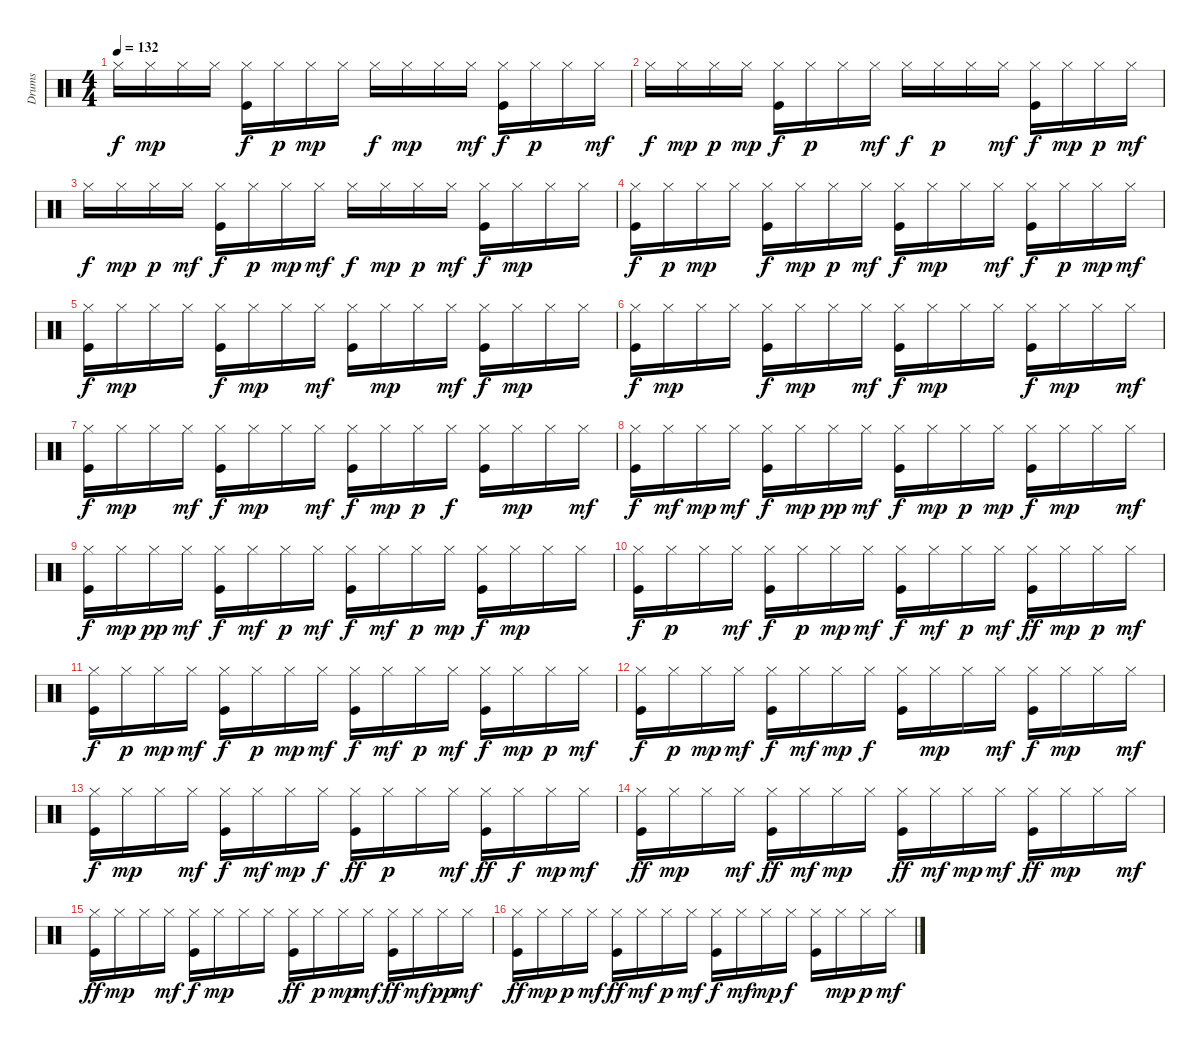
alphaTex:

\track ("Drums" "Drums") {instrument percussion}
\staff {score}
\articulation defaults
\ts (4 4)
\tempo 132
\clef neutral
\ks c "Hi-Hat (closed)".16{dy f} "Hi-Hat (closed)".16{dy mp} "Hi-Hat (closed)".16 "Hi-Hat (closed)".16
("Hi-Hat (closed)" "Kick (hit)").16{dy f} "Hi-Hat (closed)".16{dy p} "Hi-Hat (closed)".16{dy mp} "Hi-Hat (closed)".16 "Hi-Hat (closed)".16{dy f} "Hi-Hat (closed)".16{dy mp} "Hi-Hat (closed)".16 "Hi-Hat (closed)".16{dy mf} ("Hi-Hat (closed)" "Kick (hit)").16{dy f} "Hi-Hat (closed)".16{dy p} "Hi-Hat (closed)".16 "Hi-Hat (closed)".16{dy mf} |
"Hi-Hat (closed)".16{dy f} "Hi-Hat (closed)".16{dy mp} "Hi-Hat (closed)".16{dy p} "Hi-Hat (closed)".16{dy mp} ("Hi-Hat (closed)" "Kick (hit)").16{dy f} "Hi-Hat (closed)".16{dy p} "Hi-Hat (closed)".16 "Hi-Hat (closed)".16{dy mf} "Hi-Hat (closed)".16{dy f} "Hi-Hat (closed)".16{dy p} "Hi-Hat (closed)".16 "Hi-Hat (closed)".16{dy mf} ("Hi-Hat (closed)" "Kick (hit)").16{dy f} "Hi-Hat (closed)".16{dy mp} "Hi-Hat (closed)".16{dy p} "Hi-Hat (closed)".16{dy mf} |
"Hi-Hat (closed)".16{dy f} "Hi-Hat (closed)".16{dy mp} "Hi-Hat (closed)".16{dy p} "Hi-Hat (closed)".16{dy mf} ("Hi-Hat (closed)" "Kick (hit)").16{dy f} "Hi-Hat (closed)".16{dy p} "Hi-Hat (closed)".16{dy mp} "Hi-Hat (closed)".16{dy mf} "Hi-Hat (closed)".16{dy f} "Hi-Hat (closed)".16{dy mp} "Hi-Hat (closed)".16{dy p} "Hi-Hat (closed)".16{dy mf} ("Hi-Hat (closed)" "Kick (hit)").16{dy f} "Hi-Hat (closed)".16{dy mp} "Hi-Hat (closed)".16 "Hi-Hat (closed)".16 |
("Hi-Hat (closed)" "Kick (hit)").16{dy f} "Hi-Hat (closed)".16{dy p} "Hi-Hat (closed)".16{dy mp} "Hi-Hat (closed)".16 ("Hi-Hat (closed)" "Kick (hit)").16{dy f} "Hi-Hat (closed)".16{dy mp} "Hi-Hat (closed)".16{dy p} "Hi-Hat (closed)".16{dy mf} ("Hi-Hat (closed)" "Kick (hit)").16{dy f} "Hi-Hat (closed)".16{dy mp} "Hi-Hat (closed)".16 "Hi-Hat (closed)".16{dy mf} ("Hi-Hat (closed)" "Kick (hit)").16{dy f} "Hi-Hat (closed)".16{dy p} "Hi-Hat (closed)".16{dy mp} "Hi-Hat (closed)".16{dy mf} |
("Hi-Hat (closed)" "Kick (hit)").16{dy f} "Hi-Hat (closed)".16{dy mp} "Hi-Hat (closed)".16 "Hi-Hat (closed)".16 ("Hi-Hat (closed)" "Kick (hit)").16{dy f} "Hi-Hat (closed)".16{dy mp} "Hi-Hat (closed)".16 "Hi-Hat (closed)".16{dy mf} ("Hi-Hat (closed)" "Kick (hit)").16 "Hi-Hat (closed)".16{dy mp} "Hi-Hat (closed)".16 "Hi-Hat (closed)".16{dy mf} ("Hi-Hat (closed)" "Kick (hit)").16{dy f} "Hi-Hat (closed)".16{dy mp} "Hi-Hat (closed)".16 "Hi-Hat (closed)".16 |
("Hi-Hat (closed)" "Kick (hit)").16{dy f} "Hi-Hat (closed)".16{dy mp} "Hi-Hat (closed)".16 "Hi-Hat (closed)".16 ("Hi-Hat (closed)" "Kick (hit)").16{dy f} "Hi-Hat (closed)".16{dy mp} "Hi-Hat (closed)".16 "Hi-Hat (closed)".16{dy mf} ("Hi-Hat (closed)" "Kick (hit)").16{dy f} "Hi-Hat (closed)".16{dy mp} "Hi-Hat (closed)".16 "Hi-Hat (closed)".16 ("Hi-Hat (closed)" "Kick (hit)").16{dy f} "Hi-Hat (closed)".16{dy mp} "Hi-Hat (closed)".16 "Hi-Hat (closed)".16{dy mf} |
("Hi-Hat (closed)" "Kick (hit)").16{dy f} "Hi-Hat (closed)".16{dy mp} "Hi-Hat (closed)".16 "Hi-Hat (closed)".16{dy mf} ("Hi-Hat (closed)" "Kick (hit)").16{dy f} "Hi-Hat (closed)".16{dy mp} "Hi-Hat (closed)".16 "Hi-Hat (closed)".16{dy mf} ("Hi-Hat (closed)" "Kick (hit)").16{dy f} "Hi-Hat (closed)".16{dy mp} "Hi-Hat (closed)".16{dy p} "Hi-Hat (closed)".16{dy f} ("Hi-Hat (closed)" "Kick (hit)").16 "Hi-Hat (closed)".16{dy mp} "Hi-Hat (closed)".16 "Hi-Hat (closed)".16{dy mf} |
("Hi-Hat (closed)" "Kick (hit)").16{dy f} "Hi-Hat (closed)".16{dy mf} "Hi-Hat (closed)".16{dy mp} "Hi-Hat (closed)".16{dy mf} ("Hi-Hat (closed)" "Kick (hit)").16{dy f} "Hi-Hat (closed)".16{dy mp} "Hi-Hat (closed)".16{dy pp} "Hi-Hat (closed)".16{dy mf} ("Hi-Hat (closed)" "Kick (hit)").16{dy f} "Hi-Hat (closed)".16{dy mp} "Hi-Hat (closed)".16{dy p} "Hi-Hat (closed)".16{dy mp} ("Hi-Hat (closed)" "Kick (hit)").16{dy f} "Hi-Hat (closed)".16{dy mp} "Hi-Hat (closed)".16 "Hi-Hat (closed)".16{dy mf} |
("Hi-Hat (closed)" "Kick (hit)").16{dy f} "Hi-Hat (closed)".16{dy mp} "Hi-Hat (closed)".16{dy pp} "Hi-Hat (closed)".16{dy mf} ("Hi-Hat (closed)" "Kick (hit)").16{dy f} "Hi-Hat (closed)".16{dy mf} "Hi-Hat (closed)".16{dy p} "Hi-Hat (closed)".16{dy mf} ("Hi-Hat (closed)" "Kick (hit)").16{dy f} "Hi-Hat (closed)".16{dy mf} "Hi-Hat (closed)".16{dy p} "Hi-Hat (closed)".16{dy mp} ("Hi-Hat (closed)" "Kick (hit)").16{dy f} "Hi-Hat (closed)".16{dy mp} "Hi-Hat (closed)".16 "Hi-Hat (closed)".16 |
("Hi-Hat (closed)" "Kick (hit)").16{dy f} "Hi-Hat (closed)".16{dy p} "Hi-Hat (closed)".16 "Hi-Hat (closed)".16{dy mf} ("Hi-Hat (closed)" "Kick (hit)").16{dy f} "Hi-Hat (closed)".16{dy p} "Hi-Hat (closed)".16{dy mp} "Hi-Hat (closed)".16{dy mf} ("Hi-Hat (closed)" "Kick (hit)").16{dy f} "Hi-Hat (closed)".16{dy mf} "Hi-Hat (closed)".16{dy p} "Hi-Hat (closed)".16{dy mf} ("Hi-Hat (closed)" "Kick (hit)").16{dy ff} "Hi-Hat (closed)".16{dy mp} "Hi-Hat (closed)".16{dy p} "Hi-Hat (closed)".16{dy mf} |
("Hi-Hat (closed)" "Kick (hit)").16{dy f} "Hi-Hat (closed)".16{dy p} "Hi-Hat (closed)".16{dy mp} "Hi-Hat (closed)".16{dy mf} ("Hi-Hat (closed)" "Kick (hit)").16{dy f} "Hi-Hat (closed)".16{dy p} "Hi-Hat (closed)".16{dy mp} "Hi-Hat (closed)".16{dy mf} ("Hi-Hat (closed)" "Kick (hit)").16{dy f} "Hi-Hat (closed)".16{dy mf} "Hi-Hat (closed)".16{dy p} "Hi-Hat (closed)".16{dy mf} ("Hi-Hat (closed)" "Kick (hit)").16{dy f} "Hi-Hat (closed)".16{dy mp} "Hi-Hat (closed)".16{dy p} "Hi-Hat (closed)".16{dy mf} |
("Hi-Hat (closed)" "Kick (hit)").16{dy f} "Hi-Hat (closed)".16{dy p} "Hi-Hat (closed)".16{dy mp} "Hi-Hat (closed)".16{dy mf} ("Hi-Hat (closed)" "Kick (hit)").16{dy f} "Hi-Hat (closed)".16{dy mf} "Hi-Hat (closed)".16{dy mp} "Hi-Hat (closed)".16{dy f} ("Hi-Hat (closed)" "Kick (hit)").16 "Hi-Hat (closed)".16{dy mp} "Hi-Hat (closed)".16 "Hi-Hat (closed)".16{dy mf} ("Hi-Hat (closed)" "Kick (hit)").16{dy f} "Hi-Hat (closed)".16{dy mp} "Hi-Hat (closed)".16 "Hi-Hat (closed)".16{dy mf} |
("Hi-Hat (closed)" "Kick (hit)").16{dy f} "Hi-Hat (closed)".16{dy mp} "Hi-Hat (closed)".16 "Hi-Hat (closed)".16{dy mf} ("Hi-Hat (closed)" "Kick (hit)").16{dy f} "Hi-Hat (closed)".16{dy mf} "Hi-Hat (closed)".16{dy mp} "Hi-Hat (closed)".16{dy f} ("Hi-Hat (closed)" "Kick (hit)").16{dy ff} "Hi-Hat (closed)".16{dy p} "Hi-Hat (closed)".16 "Hi-Hat (closed)".16{dy mf} ("Hi-Hat (closed)" "Kick (hit)").16{dy ff} "Hi-Hat (closed)".16{dy f} "Hi-Hat (closed)".16{dy mp} "Hi-Hat (closed)".16{dy mf} |
("Hi-Hat (closed)" "Kick (hit)").16{dy ff} "Hi-Hat (closed)".16{dy mp} "Hi-Hat (closed)".16 "Hi-Hat (closed)".16{dy mf} ("Hi-Hat (closed)" "Kick (hit)").16{dy ff} "Hi-Hat (closed)".16{dy mf} "Hi-Hat (closed)".16{dy mp} "Hi-Hat (closed)".16 ("Hi-Hat (closed)" "Kick (hit)").16{dy ff} "Hi-Hat (closed)".16{dy mf} "Hi-Hat (closed)".16{dy mp} "Hi-Hat (closed)".16{dy mf} ("Hi-Hat (closed)" "Kick (hit)").16{dy ff} "Hi-Hat (closed)".16{dy mp} "Hi-Hat (closed)".16 "Hi-Hat (closed)".16{dy mf} |
("Hi-Hat (closed)" "Kick (hit)").16{dy ff} "Hi-Hat (closed)".16{dy mp} "Hi-Hat (closed)".16 "Hi-Hat (closed)".16{dy mf} ("Hi-Hat (closed)" "Kick (hit)").16{dy f} "Hi-Hat (closed)".16{dy mp} "Hi-Hat (closed)".16 "Hi-Hat (closed)".16 ("Hi-Hat (closed)" "Kick (hit)").16{dy ff} "Hi-Hat (closed)".16{dy p} "Hi-Hat (closed)".16{dy mp} "Hi-Hat (closed)".16{dy mf} ("Hi-Hat (closed)" "Kick (hit)").16{dy ff} "Hi-Hat (closed)".16{dy mf} "Hi-Hat (closed)".16{dy pp} "Hi-Hat (closed)".16{dy mf} |
("Hi-Hat (closed)" "Kick (hit)").16{dy ff} "Hi-Hat (closed)".16{dy mp} "Hi-Hat (closed)".16{dy p} "Hi-Hat (closed)".16{dy mf} ("Hi-Hat (closed)" "Kick (hit)").16{dy ff} "Hi-Hat (closed)".16{dy mf} "Hi-Hat (closed)".16{dy p} "Hi-Hat (closed)".16{dy mf} ("Hi-Hat (closed)" "Kick (hit)").16{dy f} "Hi-Hat (closed)".16{dy mf} "Hi-Hat (closed)".16{dy mp} "Hi-Hat (closed)".16{dy f} ("Hi-Hat (closed)" "Kick (hit)").16 "Hi-Hat (closed)".16{dy mp} "Hi-Hat (closed)".16{dy p} "Hi-Hat (closed)".16{dy mf}
